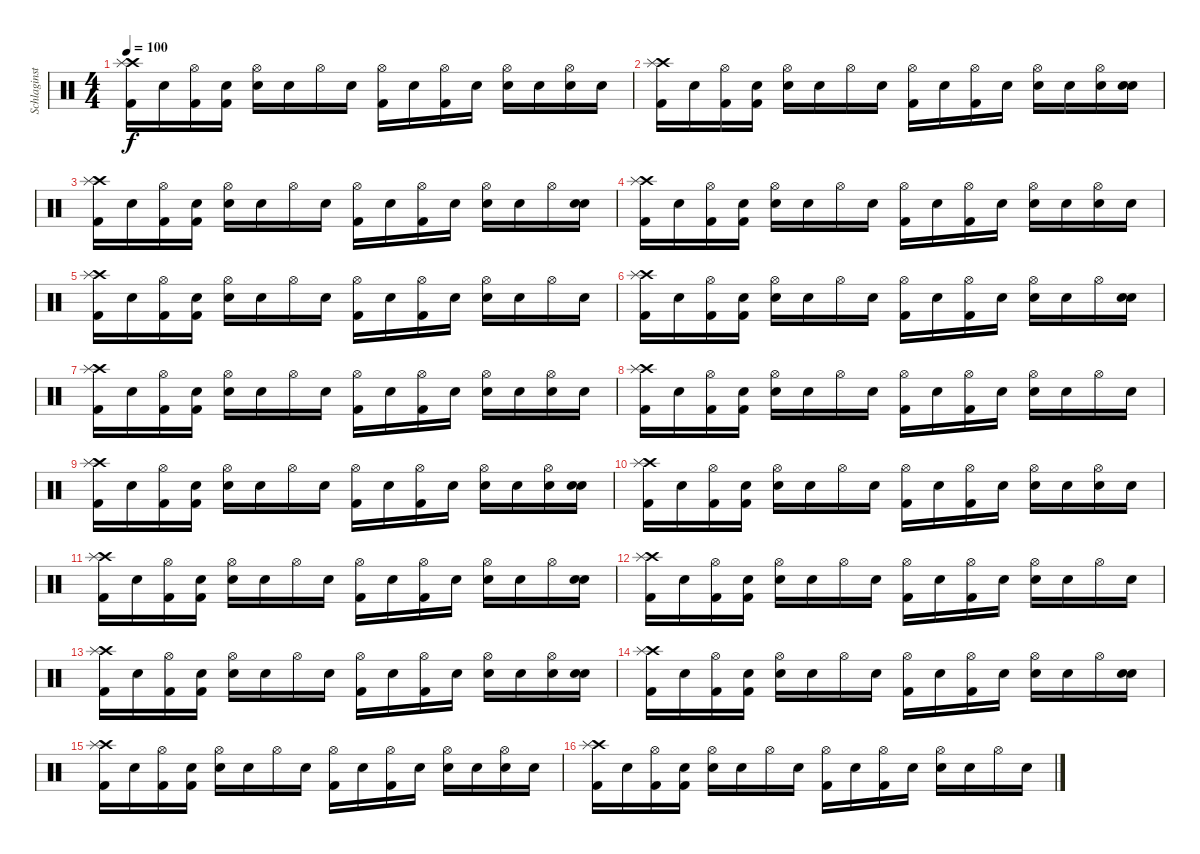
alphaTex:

\track ("Schlaginstrumente - Auswahl" "Schlaginst") {instrument percussion}
\staff {score}
\articulation defaults
\ts (4 4)
\tempo 100
\clef neutral
\ks c
("Crash high (hit)" "Splash (hit)" "Kick (hit) 2").16{dy f} "Snare (hit)"{x}.16 ("Hi-Hat (open)" "Kick (hit) 2").16 ("Snare (hit)"{x} "Kick (hit) 2").16 ("Hi-Hat (open)" "Electric Snare (hit)").16 "Snare (hit)"{x}.16 "Hi-Hat (open)".16 "Snare (hit)"{x}.16 ("Hi-Hat (open)" "Kick (hit) 2").16 "Snare (hit)"{x}.16 ("Hi-Hat (open)" "Kick (hit) 2").16 "Snare (hit)"{x}.16 ("Hi-Hat (open)" "Electric Snare (hit)").16 "Snare (hit)"{x}.16 ("Hi-Hat (open)" "Electric Snare (hit)").16 "Snare (hit)"{x}.16 |
("Crash high (hit)" "Splash (hit)" "Kick (hit) 2").16 "Snare (hit)"{x}.16 ("Hi-Hat (open)" "Kick (hit) 2").16 ("Snare (hit)"{x} "Kick (hit) 2").16 ("Hi-Hat (open)" "Electric Snare (hit)").16 "Snare (hit)"{x}.16 "Hi-Hat (open)".16 "Snare (hit)"{x}.16 ("Hi-Hat (open)" "Kick (hit) 2").16 "Snare (hit)"{x}.16 ("Hi-Hat (open)" "Kick (hit) 2").16 "Snare (hit)"{x}.16 ("Hi-Hat (open)" "Electric Snare (hit)").16 "Snare (hit)"{x}.16 ("Hi-Hat (open)" "Electric Snare (hit)").16 ("Snare (hit)"{x} "Electric Snare (hit)").16 |
("Crash high (hit)" "Splash (hit)" "Kick (hit) 2").16 "Snare (hit)"{x}.16 ("Hi-Hat (open)" "Kick (hit) 2").16 ("Snare (hit)"{x} "Kick (hit) 2").16 ("Hi-Hat (open)" "Electric Snare (hit)").16 "Snare (hit)"{x}.16 "Hi-Hat (open)".16 "Snare (hit)"{x}.16 ("Hi-Hat (open)" "Kick (hit) 2").16 "Snare (hit)"{x}.16 ("Hi-Hat (open)" "Kick (hit) 2").16 "Snare (hit)"{x}.16 ("Hi-Hat (open)" "Electric Snare (hit)").16 "Snare (hit)"{x}.16 "Hi-Hat (open)".16 ("Snare (hit)"{x} "Electric Snare (hit)").16 |
("Crash high (hit)" "Splash (hit)" "Kick (hit) 2").16 "Snare (hit)"{x}.16 ("Hi-Hat (open)" "Kick (hit) 2").16 ("Snare (hit)"{x} "Kick (hit) 2").16 ("Hi-Hat (open)" "Electric Snare (hit)").16 "Snare (hit)"{x}.16 "Hi-Hat (open)".16 "Snare (hit)"{x}.16 ("Hi-Hat (open)" "Kick (hit) 2").16 "Snare (hit)"{x}.16 ("Hi-Hat (open)" "Kick (hit) 2").16 "Snare (hit)"{x}.16 ("Hi-Hat (open)" "Electric Snare (hit)").16 "Snare (hit)"{x}.16 ("Hi-Hat (open)" "Electric Snare (hit)").16 "Snare (hit)"{x}.16 |
("Crash high (hit)" "Splash (hit)" "Kick (hit) 2").16 "Snare (hit)"{x}.16 ("Hi-Hat (open)" "Kick (hit) 2").16 ("Snare (hit)"{x} "Kick (hit) 2").16 ("Hi-Hat (open)" "Electric Snare (hit)").16 "Snare (hit)"{x}.16 "Hi-Hat (open)".16 "Snare (hit)"{x}.16 ("Hi-Hat (open)" "Kick (hit) 2").16 "Snare (hit)"{x}.16 ("Hi-Hat (open)" "Kick (hit) 2").16 "Snare (hit)"{x}.16 ("Hi-Hat (open)" "Electric Snare (hit)").16 "Snare (hit)"{x}.16 "Hi-Hat (open)".16 "Snare (hit)"{x}.16 |
("Crash high (hit)" "Splash (hit)" "Kick (hit) 2").16 "Snare (hit)"{x}.16 ("Hi-Hat (open)" "Kick (hit) 2").16 ("Snare (hit)"{x} "Kick (hit) 2").16 ("Hi-Hat (open)" "Electric Snare (hit)").16 "Snare (hit)"{x}.16 "Hi-Hat (open)".16 "Snare (hit)"{x}.16 ("Hi-Hat (open)" "Kick (hit) 2").16 "Snare (hit)"{x}.16 ("Hi-Hat (open)" "Kick (hit) 2").16 "Snare (hit)"{x}.16 ("Hi-Hat (open)" "Electric Snare (hit)").16 "Snare (hit)"{x}.16 "Hi-Hat (open)".16 ("Snare (hit)"{x} "Electric Snare (hit)").16 |
("Crash high (hit)" "Splash (hit)" "Kick (hit) 2").16 "Snare (hit)"{x}.16 ("Hi-Hat (open)" "Kick (hit) 2").16 ("Snare (hit)"{x} "Kick (hit) 2").16 ("Hi-Hat (open)" "Electric Snare (hit)").16 "Snare (hit)"{x}.16 "Hi-Hat (open)".16 "Snare (hit)"{x}.16 ("Hi-Hat (open)" "Kick (hit) 2").16 "Snare (hit)"{x}.16 ("Hi-Hat (open)" "Kick (hit) 2").16 "Snare (hit)"{x}.16 ("Hi-Hat (open)" "Electric Snare (hit)").16 "Snare (hit)"{x}.16 ("Hi-Hat (open)" "Electric Snare (hit)").16 "Snare (hit)"{x}.16 |
("Crash high (hit)" "Splash (hit)" "Kick (hit) 2").16 "Snare (hit)"{x}.16 ("Hi-Hat (open)" "Kick (hit) 2").16 ("Snare (hit)"{x} "Kick (hit) 2").16 ("Hi-Hat (open)" "Electric Snare (hit)").16 "Snare (hit)"{x}.16 "Hi-Hat (open)".16 "Snare (hit)"{x}.16 ("Hi-Hat (open)" "Kick (hit) 2").16 "Snare (hit)"{x}.16 ("Hi-Hat (open)" "Kick (hit) 2").16 "Snare (hit)"{x}.16 ("Hi-Hat (open)" "Electric Snare (hit)").16 "Snare (hit)"{x}.16 "Hi-Hat (open)".16 "Snare (hit)"{x}.16 |
("Crash high (hit)" "Splash (hit)" "Kick (hit) 2").16 "Snare (hit)"{x}.16 ("Hi-Hat (open)" "Kick (hit) 2").16 ("Snare (hit)"{x} "Kick (hit) 2").16 ("Hi-Hat (open)" "Electric Snare (hit)").16 "Snare (hit)"{x}.16 "Hi-Hat (open)".16 "Snare (hit)"{x}.16 ("Hi-Hat (open)" "Kick (hit) 2").16 "Snare (hit)"{x}.16 ("Hi-Hat (open)" "Kick (hit) 2").16 "Snare (hit)"{x}.16 ("Hi-Hat (open)" "Electric Snare (hit)").16 "Snare (hit)"{x}.16 ("Hi-Hat (open)" "Electric Snare (hit)").16 ("Snare (hit)"{x} "Electric Snare (hit)").16 |
("Crash high (hit)" "Splash (hit)" "Kick (hit) 2").16 "Snare (hit)"{x}.16 ("Hi-Hat (open)" "Kick (hit) 2").16 ("Snare (hit)"{x} "Kick (hit) 2").16 ("Hi-Hat (open)" "Electric Snare (hit)").16 "Snare (hit)"{x}.16 "Hi-Hat (open)".16 "Snare (hit)"{x}.16 ("Hi-Hat (open)" "Kick (hit) 2").16 "Snare (hit)"{x}.16 ("Hi-Hat (open)" "Kick (hit) 2").16 "Snare (hit)"{x}.16 ("Hi-Hat (open)" "Electric Snare (hit)").16 "Snare (hit)"{x}.16 ("Hi-Hat (open)" "Electric Snare (hit)").16 "Snare (hit)"{x}.16 |
("Crash high (hit)" "Splash (hit)" "Kick (hit) 2").16 "Snare (hit)"{x}.16 ("Hi-Hat (open)" "Kick (hit) 2").16 ("Snare (hit)"{x} "Kick (hit) 2").16 ("Hi-Hat (open)" "Electric Snare (hit)").16 "Snare (hit)"{x}.16 "Hi-Hat (open)".16 "Snare (hit)"{x}.16 ("Hi-Hat (open)" "Kick (hit) 2").16 "Snare (hit)"{x}.16 ("Hi-Hat (open)" "Kick (hit) 2").16 "Snare (hit)"{x}.16 ("Hi-Hat (open)" "Electric Snare (hit)").16 "Snare (hit)"{x}.16 "Hi-Hat (open)".16 ("Snare (hit)"{x} "Electric Snare (hit)").16 |
("Crash high (hit)" "Splash (hit)" "Kick (hit) 2").16 "Snare (hit)"{x}.16 ("Hi-Hat (open)" "Kick (hit) 2").16 ("Snare (hit)"{x} "Kick (hit) 2").16 ("Hi-Hat (open)" "Electric Snare (hit)").16 "Snare (hit)"{x}.16 "Hi-Hat (open)".16 "Snare (hit)"{x}.16 ("Hi-Hat (open)" "Kick (hit) 2").16 "Snare (hit)"{x}.16 ("Hi-Hat (open)" "Kick (hit) 2").16 "Snare (hit)"{x}.16 ("Hi-Hat (open)" "Electric Snare (hit)").16 "Snare (hit)"{x}.16 "Hi-Hat (open)".16 "Snare (hit)"{x}.16 |
("Crash high (hit)" "Splash (hit)" "Kick (hit) 2").16 "Snare (hit)"{x}.16 ("Hi-Hat (open)" "Kick (hit) 2").16 ("Snare (hit)"{x} "Kick (hit) 2").16 ("Hi-Hat (open)" "Electric Snare (hit)").16 "Snare (hit)"{x}.16 "Hi-Hat (open)".16 "Snare (hit)"{x}.16 ("Hi-Hat (open)" "Kick (hit) 2").16 "Snare (hit)"{x}.16 ("Hi-Hat (open)" "Kick (hit) 2").16 "Snare (hit)"{x}.16 ("Hi-Hat (open)" "Electric Snare (hit)").16 "Snare (hit)"{x}.16 ("Hi-Hat (open)" "Electric Snare (hit)").16 ("Snare (hit)"{x} "Electric Snare (hit)").16 |
("Crash high (hit)" "Splash (hit)" "Kick (hit) 2").16 "Snare (hit)"{x}.16 ("Hi-Hat (open)" "Kick (hit) 2").16 ("Snare (hit)"{x} "Kick (hit) 2").16 ("Hi-Hat (open)" "Electric Snare (hit)").16 "Snare (hit)"{x}.16 "Hi-Hat (open)".16 "Snare (hit)"{x}.16 ("Hi-Hat (open)" "Kick (hit) 2").16 "Snare (hit)"{x}.16 ("Hi-Hat (open)" "Kick (hit) 2").16 "Snare (hit)"{x}.16 ("Hi-Hat (open)" "Electric Snare (hit)").16 "Snare (hit)"{x}.16 "Hi-Hat (open)".16 ("Snare (hit)"{x} "Electric Snare (hit)").16 |
("Crash high (hit)" "Splash (hit)" "Kick (hit) 2").16 "Snare (hit)"{x}.16 ("Hi-Hat (open)" "Kick (hit) 2").16 ("Snare (hit)"{x} "Kick (hit) 2").16 ("Hi-Hat (open)" "Electric Snare (hit)").16 "Snare (hit)"{x}.16 "Hi-Hat (open)".16 "Snare (hit)"{x}.16 ("Hi-Hat (open)" "Kick (hit) 2").16 "Snare (hit)"{x}.16 ("Hi-Hat (open)" "Kick (hit) 2").16 "Snare (hit)"{x}.16 ("Hi-Hat (open)" "Electric Snare (hit)").16 "Snare (hit)"{x}.16 ("Hi-Hat (open)" "Electric Snare (hit)").16 "Snare (hit)"{x}.16 |
("Crash high (hit)" "Splash (hit)" "Kick (hit) 2").16 "Snare (hit)"{x}.16 ("Hi-Hat (open)" "Kick (hit) 2").16 ("Snare (hit)"{x} "Kick (hit) 2").16 ("Hi-Hat (open)" "Electric Snare (hit)").16 "Snare (hit)"{x}.16 "Hi-Hat (open)".16 "Snare (hit)"{x}.16 ("Hi-Hat (open)" "Kick (hit) 2").16 "Snare (hit)"{x}.16 ("Hi-Hat (open)" "Kick (hit) 2").16 "Snare (hit)"{x}.16 ("Hi-Hat (open)" "Electric Snare (hit)").16 "Snare (hit)"{x}.16 "Hi-Hat (open)".16 "Snare (hit)"{x}.16
